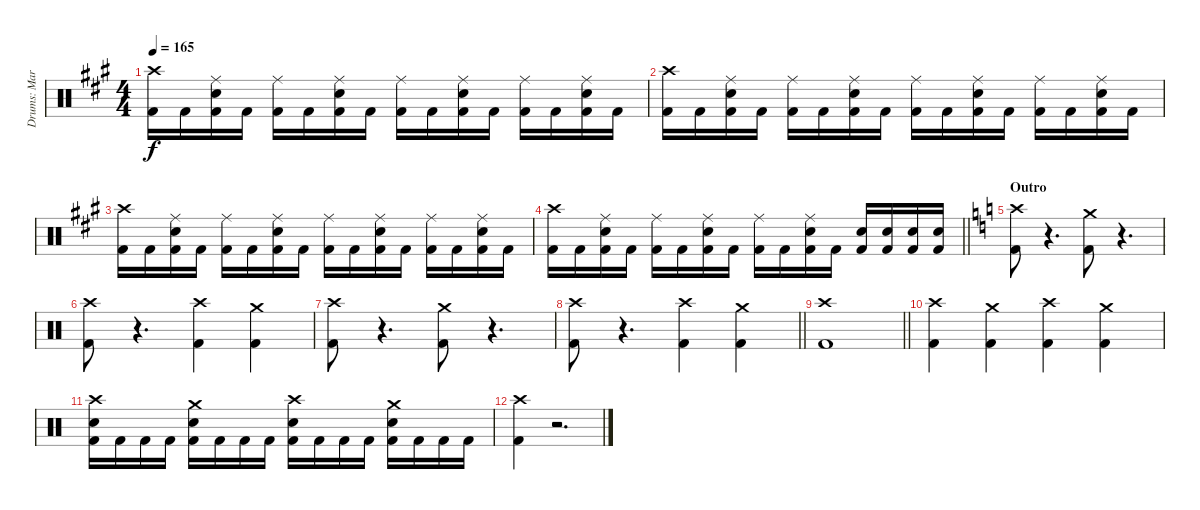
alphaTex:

\track ("Drums: Martin Herzinger" "Drums: Mar") {instrument percussion}
\staff {score}
\articulation defaults
\ts (4 4)
\tempo 165
\clef neutral
\ks a
("Crash high (hit)" "Kick (hit) 2").16{dy f} "Kick (hit) 2".16 ("Ride (middle)" "Snare (hit) 2" "Kick (hit) 2").16 "Kick (hit) 2".16 ("Ride (middle)" "Kick (hit) 2").16 "Kick (hit) 2".16 ("Ride (middle)" "Snare (hit) 2" "Kick (hit) 2").16 "Kick (hit) 2".16 ("Ride (middle)" "Kick (hit) 2").16 "Kick (hit) 2".16 ("Ride (middle)" "Snare (hit) 2" "Kick (hit) 2").16 "Kick (hit) 2".16 ("Ride (middle)" "Kick (hit) 2").16 "Kick (hit) 2".16 ("Ride (middle)" "Snare (hit) 2" "Kick (hit) 2").16 "Kick (hit) 2".16 |
("Crash high (hit)" "Kick (hit) 2").16 "Kick (hit) 2".16 ("Ride (middle)" "Snare (hit) 2" "Kick (hit) 2").16 "Kick (hit) 2".16 ("Ride (middle)" "Kick (hit) 2").16 "Kick (hit) 2".16 ("Ride (middle)" "Snare (hit) 2" "Kick (hit) 2").16 "Kick (hit) 2".16 ("Ride (middle)" "Kick (hit) 2").16 "Kick (hit) 2".16 ("Ride (middle)" "Snare (hit) 2" "Kick (hit) 2").16 "Kick (hit) 2".16 ("Ride (middle)" "Kick (hit) 2").16 "Kick (hit) 2".16 ("Ride (middle)" "Snare (hit) 2" "Kick (hit) 2").16 "Kick (hit) 2".16 |
("Crash high (hit)" "Kick (hit) 2").16 "Kick (hit) 2".16 ("Ride (middle)" "Snare (hit) 2" "Kick (hit) 2").16 "Kick (hit) 2".16 ("Ride (middle)" "Kick (hit) 2").16 "Kick (hit) 2".16 ("Ride (middle)" "Snare (hit) 2" "Kick (hit) 2").16 "Kick (hit) 2".16 ("Ride (middle)" "Kick (hit) 2").16 "Kick (hit) 2".16 ("Ride (middle)" "Snare (hit) 2" "Kick (hit) 2").16 "Kick (hit) 2".16 ("Ride (middle)" "Kick (hit) 2").16 "Kick (hit) 2".16 ("Ride (middle)" "Snare (hit) 2" "Kick (hit) 2").16 "Kick (hit) 2".16 |
\barLineRight lightlight
("Crash high (hit)" "Kick (hit) 2").16 "Kick (hit) 2".16 ("Ride (middle)" "Snare (hit) 2" "Kick (hit) 2").16 "Kick (hit) 2".16 ("Ride (middle)" "Kick (hit) 2").16 "Kick (hit) 2".16 ("Ride (middle)" "Snare (hit) 2" "Kick (hit) 2").16 "Kick (hit) 2".16 ("Ride (middle)" "Kick (hit) 2").16 "Kick (hit) 2".16 ("Ride (middle)" "Snare (hit) 2" "Kick (hit) 2").16 "Kick (hit) 2".16 ("Snare (hit) 2" "Kick (hit) 2").16 ("Snare (hit) 2" "Kick (hit) 2").16 ("Snare (hit) 2" "Kick (hit) 2").16 ("Snare (hit) 2" "Kick (hit) 2").16 |
\section ("" "Outro")
\ks aminor
("Crash high (hit)" "Kick (hit) 2").8 r.4{d} ("Crash medium (hit)" "Kick (hit) 2").8 r.4{d} |
("Crash high (hit)" "Kick (hit) 2").8 r.4{d} ("Crash high (hit)" "Kick (hit) 2").4 ("Crash medium (hit)" "Kick (hit) 2").4 |
("Crash high (hit)" "Kick (hit) 2").8 r.4{d} ("Crash medium (hit)" "Kick (hit) 2").8 r.4{d} |
\barLineRight lightlight
("Crash high (hit)" "Kick (hit) 2").8 r.4{d} ("Crash high (hit)" "Kick (hit) 2").4 ("Crash medium (hit)" "Kick (hit) 2").4 |
\barLineRight lightlight
("Crash high (hit)" "Kick (hit) 2").1 |
("Crash high (hit)" "Kick (hit) 2").4 ("Crash medium (hit)" "Kick (hit) 2").4 ("Crash high (hit)" "Kick (hit) 2").4 ("Crash medium (hit)" "Kick (hit) 2").4 |
("Crash high (hit)" "Snare (hit) 2" "Kick (hit) 2").16 "Kick (hit) 2".16 "Kick (hit) 2".16 "Kick (hit) 2".16 ("Crash medium (hit)" "Snare (hit) 2" "Kick (hit) 2").16 "Kick (hit) 2".16 "Kick (hit) 2".16 "Kick (hit) 2".16 ("Crash high (hit)" "Snare (hit) 2" "Kick (hit) 2").16 "Kick (hit) 2".16 "Kick (hit) 2".16 "Kick (hit) 2".16 ("Crash medium (hit)" "Snare (hit) 2" "Kick (hit) 2").16 "Kick (hit) 2".16 "Kick (hit) 2".16 "Kick (hit) 2".16 |
("Crash high (hit)" "Kick (hit) 2").4 r.2{d}
